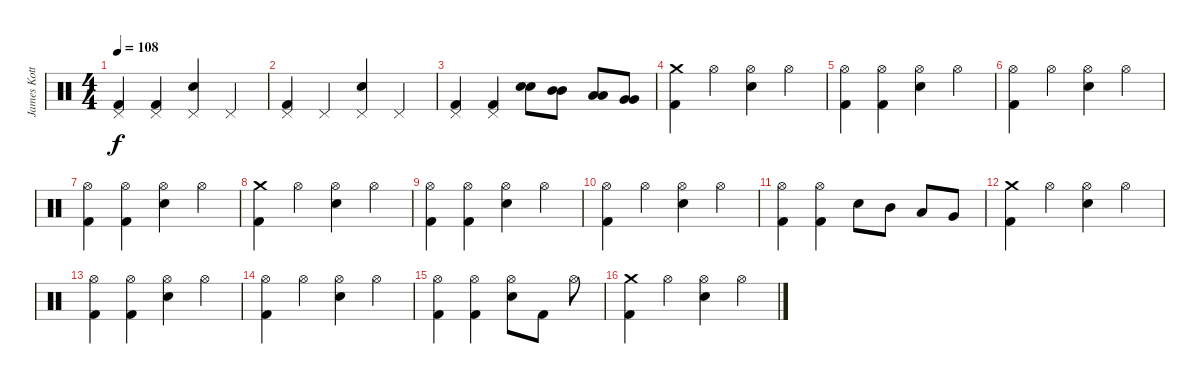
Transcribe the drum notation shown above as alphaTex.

\track ("James Kottak" "James Kott") {instrument percussion}
\staff {score}
\articulation defaults
\ts (4 4)
\tempo 108
\clef neutral
\ks c
("Pedal Hi-Hat (hit)" "Kick (hit) 2").4{dy f} ("Pedal Hi-Hat (hit)" "Kick (hit) 2").4 ("Pedal Hi-Hat (hit)" "Snare (hit) 2").4 "Pedal Hi-Hat (hit)".4 |
("Pedal Hi-Hat (hit)" "Kick (hit) 2").4 "Pedal Hi-Hat (hit)".4 ("Pedal Hi-Hat (hit)" "Snare (hit) 2").4 "Pedal Hi-Hat (hit)".4 |
("Pedal Hi-Hat (hit)" "Kick (hit) 2").4 ("Pedal Hi-Hat (hit)" "Kick (hit) 2").4 ("Snare (hit) 2" "Snare (hit) 2").8{bd 240} ("Mid Tom (hit)" "Mid Tom (hit)").8{bd 120} ("Low Tom (hit)" "Low Tom (hit)").8{bd 120} ("Very Low Tom (hit)" "Very Low Tom (hit)").8{bd 120} |
("Crash medium (hit)" "Kick (hit) 2").4 "Hi-Hat (open)".4 ("Hi-Hat (open)" "Snare (hit) 2").4 "Hi-Hat (open)".4 |
("Hi-Hat (open)" "Kick (hit) 2").4 ("Hi-Hat (open)" "Kick (hit) 2").4 ("Hi-Hat (open)" "Snare (hit) 2").4 "Hi-Hat (open)".4 |
("Hi-Hat (open)" "Kick (hit) 2").4 "Hi-Hat (open)".4 ("Hi-Hat (open)" "Snare (hit) 2").4 "Hi-Hat (open)".4 |
("Hi-Hat (open)" "Kick (hit) 2").4 ("Hi-Hat (open)" "Kick (hit) 2").4 ("Hi-Hat (open)" "Snare (hit) 2").4 "Hi-Hat (open)".4 |
("Crash medium (hit)" "Kick (hit) 2").4 "Hi-Hat (open)".4 ("Hi-Hat (open)" "Snare (hit) 2").4 "Hi-Hat (open)".4 |
("Hi-Hat (open)" "Kick (hit) 2").4 ("Hi-Hat (open)" "Kick (hit) 2").4 ("Hi-Hat (open)" "Snare (hit) 2").4 "Hi-Hat (open)".4 |
("Hi-Hat (open)" "Kick (hit) 2").4 "Hi-Hat (open)".4 ("Hi-Hat (open)" "Snare (hit) 2").4 "Hi-Hat (open)".4 |
("Hi-Hat (open)" "Kick (hit) 2").4 ("Hi-Hat (open)" "Kick (hit) 2").4 "Snare (hit) 2".8 "Mid Tom (hit)".8 "Low Tom (hit)".8 "Very Low Tom (hit)".8 |
("Crash medium (hit)" "Kick (hit) 2").4 "Hi-Hat (open)".4 ("Hi-Hat (open)" "Snare (hit) 2").4 "Hi-Hat (open)".4 |
("Hi-Hat (open)" "Kick (hit) 2").4 ("Hi-Hat (open)" "Kick (hit) 2").4 ("Hi-Hat (open)" "Snare (hit) 2").4 "Hi-Hat (open)".4 |
("Hi-Hat (open)" "Kick (hit) 2").4 "Hi-Hat (open)".4 ("Hi-Hat (open)" "Snare (hit) 2").4 "Hi-Hat (open)".4 |
("Hi-Hat (open)" "Kick (hit) 2").4 ("Hi-Hat (open)" "Kick (hit) 2").4 ("Hi-Hat (open)" "Snare (hit) 2").8 "Kick (hit) 2".8 "Hi-Hat (open)".8 |
("Crash medium (hit)" "Kick (hit) 2").4 "Hi-Hat (open)".4 ("Hi-Hat (open)" "Snare (hit) 2").4 "Hi-Hat (open)".4
